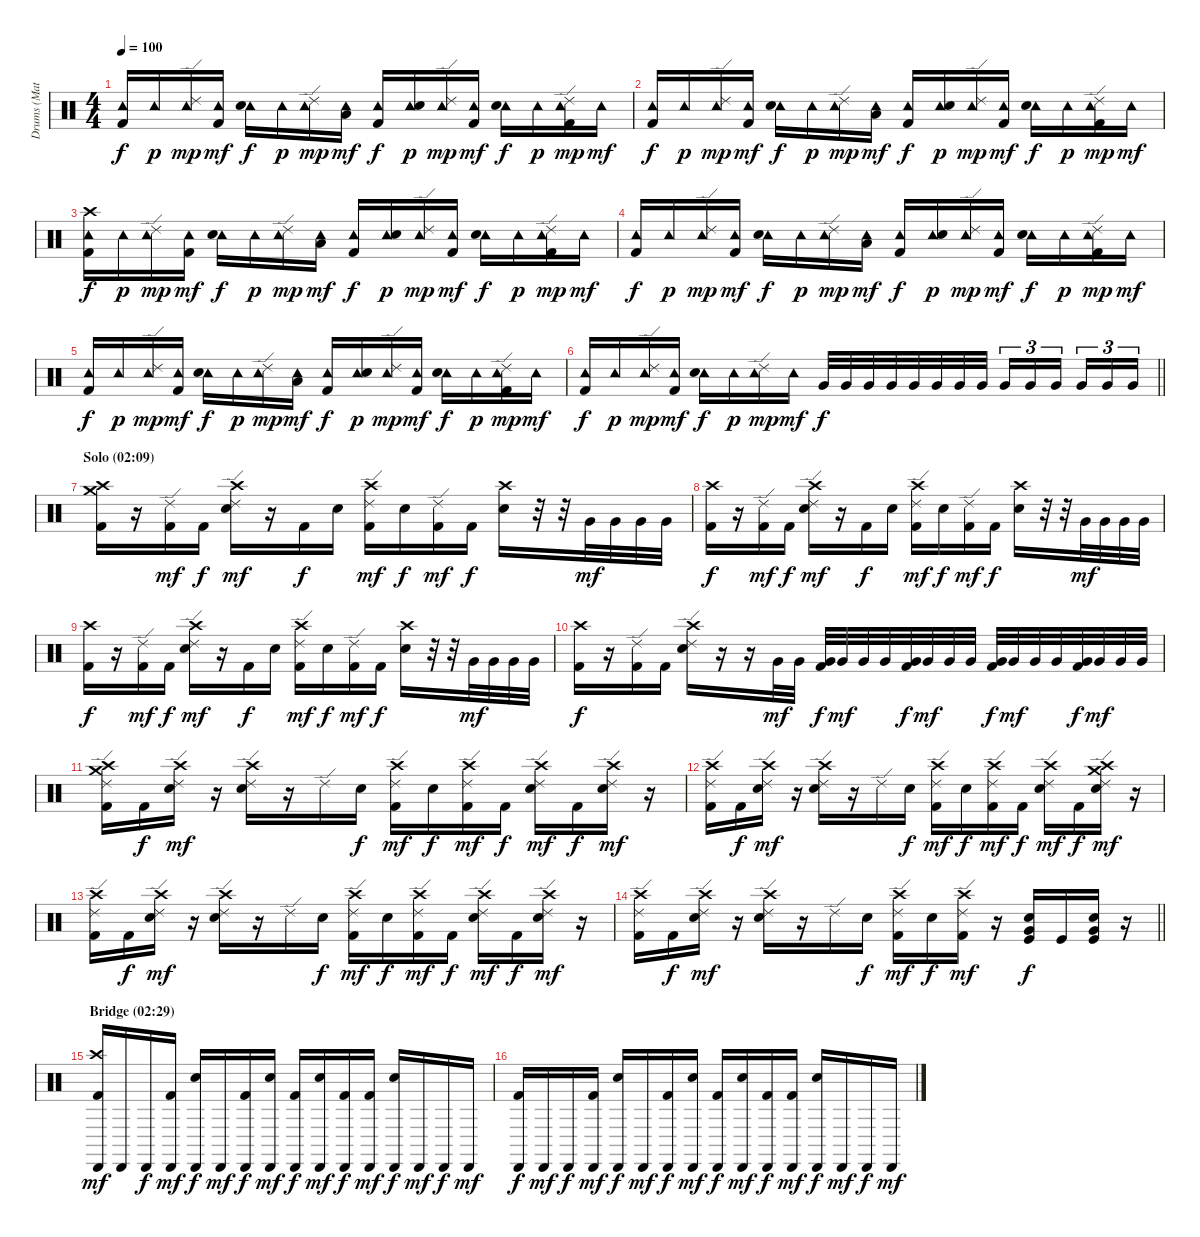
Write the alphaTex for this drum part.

\track ("Drums (Matt Sorum)" "Drums (Mat") {instrument percussion}
\staff {score}
\articulation defaults
\ts (4 4)
\tempo 100
\clef neutral
\ks c
("Tambourine (hit)" "Kick (hit) 2").16{dy f} "Tambourine (hit)".16{dy p} ("Tambourine (hit)" "Ride (edge) 2").16{dy mp} ("Tambourine (hit)" "Kick (hit) 2").16{dy mf} ("Tambourine (hit)" "Electric Snare (hit)").16{dy f} "Tambourine (hit)".16{dy p} ("Tambourine (hit)" "Ride (edge) 2").16{dy mp} ("Tambourine (hit)" "Low Tom (hit)").16{dy mf} ("Tambourine (hit)" "Kick (hit) 2").16{dy f} ("Tambourine (hit)" "Electric Snare (hit)").16{dy p} ("Tambourine (hit)" "Ride (edge) 2").16{dy mp} ("Tambourine (hit)" "Kick (hit) 2").16{dy mf} ("Tambourine (hit)" "Electric Snare (hit)").16{dy f} "Tambourine (hit)".16{dy p} ("Tambourine (hit)" "Ride (edge) 2" "Kick (hit) 2").16{dy mp} "Tambourine (hit)".16{dy mf} |
("Tambourine (hit)" "Kick (hit) 2").16{dy f} "Tambourine (hit)".16{dy p} ("Tambourine (hit)" "Ride (edge) 2").16{dy mp} ("Tambourine (hit)" "Kick (hit) 2").16{dy mf} ("Tambourine (hit)" "Electric Snare (hit)").16{dy f} "Tambourine (hit)".16{dy p} ("Tambourine (hit)" "Ride (edge) 2").16{dy mp} ("Tambourine (hit)" "Low Tom (hit)").16{dy mf} ("Tambourine (hit)" "Kick (hit) 2").16{dy f} ("Tambourine (hit)" "Electric Snare (hit)").16{dy p} ("Tambourine (hit)" "Ride (edge) 2").16{dy mp} ("Tambourine (hit)" "Kick (hit) 2").16{dy mf} ("Tambourine (hit)" "Electric Snare (hit)").16{dy f} "Tambourine (hit)".16{dy p} ("Tambourine (hit)" "Ride (edge) 2" "Kick (hit) 2").16{dy mp} "Tambourine (hit)".16{dy mf} |
("Tambourine (hit)" "Crash high (hit)" "Kick (hit) 2").16{dy f} "Tambourine (hit)".16{dy p} ("Tambourine (hit)" "Ride (edge) 2").16{dy mp} ("Tambourine (hit)" "Kick (hit) 2").16{dy mf} ("Tambourine (hit)" "Electric Snare (hit)").16{dy f} "Tambourine (hit)".16{dy p} ("Tambourine (hit)" "Ride (edge) 2").16{dy mp} ("Tambourine (hit)" "Low Tom (hit)").16{dy mf} ("Tambourine (hit)" "Kick (hit) 2").16{dy f} ("Tambourine (hit)" "Electric Snare (hit)").16{dy p} ("Tambourine (hit)" "Ride (edge) 2").16{dy mp} ("Tambourine (hit)" "Kick (hit) 2").16{dy mf} ("Tambourine (hit)" "Electric Snare (hit)").16{dy f} "Tambourine (hit)".16{dy p} ("Tambourine (hit)" "Ride (edge) 2" "Kick (hit) 2").16{dy mp} "Tambourine (hit)".16{dy mf} |
("Tambourine (hit)" "Kick (hit) 2").16{dy f} "Tambourine (hit)".16{dy p} ("Tambourine (hit)" "Ride (edge) 2").16{dy mp} ("Tambourine (hit)" "Kick (hit) 2").16{dy mf} ("Tambourine (hit)" "Electric Snare (hit)").16{dy f} "Tambourine (hit)".16{dy p} ("Tambourine (hit)" "Ride (edge) 2").16{dy mp} ("Tambourine (hit)" "Low Tom (hit)").16{dy mf} ("Tambourine (hit)" "Kick (hit) 2").16{dy f} ("Tambourine (hit)" "Electric Snare (hit)").16{dy p} ("Tambourine (hit)" "Ride (edge) 2").16{dy mp} ("Tambourine (hit)" "Kick (hit) 2").16{dy mf} ("Tambourine (hit)" "Electric Snare (hit)").16{dy f} "Tambourine (hit)".16{dy p} ("Tambourine (hit)" "Ride (edge) 2" "Kick (hit) 2").16{dy mp} "Tambourine (hit)".16{dy mf} |
("Tambourine (hit)" "Kick (hit) 2").16{dy f} "Tambourine (hit)".16{dy p} ("Tambourine (hit)" "Ride (edge) 2").16{dy mp} ("Tambourine (hit)" "Kick (hit) 2").16{dy mf} ("Tambourine (hit)" "Electric Snare (hit)").16{dy f} "Tambourine (hit)".16{dy p} ("Tambourine (hit)" "Ride (edge) 2").16{dy mp} ("Tambourine (hit)" "Low Tom (hit)").16{dy mf} ("Tambourine (hit)" "Kick (hit) 2").16{dy f} ("Tambourine (hit)" "Electric Snare (hit)").16{dy p} ("Tambourine (hit)" "Ride (edge) 2").16{dy mp} ("Tambourine (hit)" "Kick (hit) 2").16{dy mf} ("Tambourine (hit)" "Electric Snare (hit)").16{dy f} "Tambourine (hit)".16{dy p} ("Tambourine (hit)" "Ride (edge) 2" "Kick (hit) 2").16{dy mp} "Tambourine (hit)".16{dy mf} |
\barLineRight lightlight
("Tambourine (hit)" "Kick (hit) 2").16{dy f} "Tambourine (hit)".16{dy p} ("Tambourine (hit)" "Ride (edge) 2").16{dy mp} ("Tambourine (hit)" "Kick (hit) 2").16{dy mf} ("Tambourine (hit)" "Electric Snare (hit)").16{dy f} "Tambourine (hit)".16{dy p} ("Tambourine (hit)" "Ride (edge) 2").16{dy mp} "Tambourine (hit)".16{dy mf} "Very Low Tom (hit)".32{dy f} "Very Low Tom (hit)".32 "Very Low Tom (hit)".32 "Very Low Tom (hit)".32 "Very Low Tom (hit)".32 "Very Low Tom (hit)".32 "Very Low Tom (hit)".32 "Very Low Tom (hit)".32 "Very Low Tom (hit)".16{tu (3 2)} "Very Low Tom (hit)".16{tu (3 2)} "Very Low Tom (hit)".16{tu (3 2) beam splitsecondary} "Very Low Tom (hit)".16{tu (3 2)} "Very Low Tom (hit)".16{tu (3 2)} "Very Low Tom (hit)".16{tu (3 2)} |
\section ("" "Solo (02:09)")
("Crash medium (hit)" "Crash high (hit)" "Kick (hit) 2").16 r.16 ("Ride (edge) 2" "Kick (hit) 2").16{dy mf} "Kick (hit) 2".16{dy f} ("Crash high (hit)" "Ride (edge) 2" "Electric Snare (hit)").16{dy mf} r.16 "Kick (hit) 2".16{dy f} "Electric Snare (hit)".16 ("Crash high (hit)" "Ride (edge) 2" "Kick (hit) 2").16{dy mf} "Electric Snare (hit)".16{dy f} ("Ride (edge) 2" "Kick (hit) 2").16{dy mf} "Kick (hit) 2".16{dy f} ("Crash high (hit)" "Electric Snare (hit)").16 r.32 r.32 "Very Low Tom (hit)".32{dy mf} "Very Low Tom (hit)".32 "Very Low Tom (hit)".32 "Very Low Tom (hit)".32 |
("Crash high (hit)" "Kick (hit) 2").16{dy f} r.16 ("Ride (edge) 2" "Kick (hit) 2").16{dy mf} "Kick (hit) 2".16{dy f} ("Crash high (hit)" "Ride (edge) 2" "Electric Snare (hit)").16{dy mf} r.16 "Kick (hit) 2".16{dy f} "Electric Snare (hit)".16 ("Crash high (hit)" "Ride (edge) 2" "Kick (hit) 2").16{dy mf} "Electric Snare (hit)".16{dy f} ("Ride (edge) 2" "Kick (hit) 2").16{dy mf} "Kick (hit) 2".16{dy f} ("Crash high (hit)" "Electric Snare (hit)").16 r.32 r.32 "Very Low Tom (hit)".32{dy mf} "Very Low Tom (hit)".32 "Very Low Tom (hit)".32 "Very Low Tom (hit)".32 |
("Crash high (hit)" "Kick (hit) 2").16{dy f} r.16 ("Ride (edge) 2" "Kick (hit) 2").16{dy mf} "Kick (hit) 2".16{dy f} ("Crash high (hit)" "Ride (edge) 2" "Electric Snare (hit)").16{dy mf} r.16 "Kick (hit) 2".16{dy f} "Electric Snare (hit)".16 ("Crash high (hit)" "Ride (edge) 2" "Kick (hit) 2").16{dy mf} "Electric Snare (hit)".16{dy f} ("Ride (edge) 2" "Kick (hit) 2").16{dy mf} "Kick (hit) 2".16{dy f} ("Crash high (hit)" "Electric Snare (hit)").16 r.32 r.32 "Very Low Tom (hit)".32{dy mf} "Very Low Tom (hit)".32 "Very Low Tom (hit)".32 "Very Low Tom (hit)".32 |
("Crash high (hit)" "Kick (hit) 2").16{dy f} r.16 ("Ride (edge) 2" "Kick (hit) 2").16 "Kick (hit) 2".16 ("Crash high (hit)" "Ride (edge) 2" "Electric Snare (hit)").16 r.16 r.16 "Very Low Tom (hit)".32{dy mf} "Very Low Tom (hit)".32 ("Very Low Tom (hit)" "Kick (hit) 2").32{dy f} "Very Low Tom (hit)".32{dy mf} "Very Low Tom (hit)".32 "Very Low Tom (hit)".32 ("Very Low Tom (hit)" "Kick (hit) 2").32{dy f} "Very Low Tom (hit)".32{dy mf} "Very Low Tom (hit)".32 "Very Low Tom (hit)".32 ("Very Low Tom (hit)" "Kick (hit) 2").32{dy f} "Very Low Tom (hit)".32{dy mf} "Very Low Tom (hit)".32 "Very Low Tom (hit)".32 ("Very Low Tom (hit)" "Kick (hit) 2").32{dy f} "Very Low Tom (hit)".32{dy mf} "Very Low Tom (hit)".32 "Very Low Tom (hit)".32 |
("Crash medium (hit)" "Crash high (hit)" "Ride (edge) 2" "Kick (hit) 2").16 "Kick (hit) 2".16{dy f} ("Crash high (hit)" "Ride (edge) 2" "Electric Snare (hit)").16{dy mf} r.16 ("Crash high (hit)" "Ride (edge) 2" "Electric Snare (hit)").16 r.16 "Ride (edge) 2".16 "Electric Snare (hit)".16{dy f} ("Crash high (hit)" "Ride (edge) 2" "Kick (hit) 2").16{dy mf} "Electric Snare (hit)".16{dy f} ("Crash high (hit)" "Ride (edge) 2" "Kick (hit) 2").16{dy mf} "Kick (hit) 2".16{dy f} ("Crash high (hit)" "Ride (edge) 2" "Electric Snare (hit)").16{dy mf} "Kick (hit) 2".16{dy f} ("Crash high (hit)" "Ride (edge) 2" "Electric Snare (hit)").16{dy mf} r.16 |
("Crash high (hit)" "Ride (edge) 2" "Kick (hit) 2").16 "Kick (hit) 2".16{dy f} ("Crash high (hit)" "Ride (edge) 2" "Electric Snare (hit)").16{dy mf} r.16 ("Crash high (hit)" "Ride (edge) 2" "Electric Snare (hit)").16 r.16 "Ride (edge) 2".16 "Electric Snare (hit)".16{dy f} ("Crash high (hit)" "Ride (edge) 2" "Kick (hit) 2").16{dy mf} "Electric Snare (hit)".16{dy f} ("Crash high (hit)" "Ride (edge) 2" "Kick (hit) 2").16{dy mf} "Kick (hit) 2".16{dy f} ("Crash high (hit)" "Ride (edge) 2" "Electric Snare (hit)").16{dy mf} "Kick (hit) 2".16{dy f} ("Crash medium (hit)" "Crash high (hit)" "Ride (edge) 2" "Electric Snare (hit)").16{dy mf} r.16 |
("Crash high (hit)" "Ride (edge) 2" "Kick (hit) 2").16 "Kick (hit) 2".16{dy f} ("Crash high (hit)" "Ride (edge) 2" "Electric Snare (hit)").16{dy mf} r.16 ("Crash high (hit)" "Ride (edge) 2" "Electric Snare (hit)").16 r.16 "Ride (edge) 2".16 "Electric Snare (hit)".16{dy f} ("Crash high (hit)" "Ride (edge) 2" "Kick (hit) 2").16{dy mf} "Electric Snare (hit)".16{dy f} ("Crash high (hit)" "Ride (edge) 2" "Kick (hit) 2").16{dy mf} "Kick (hit) 2".16{dy f} ("Crash high (hit)" "Ride (edge) 2" "Electric Snare (hit)").16{dy mf} "Kick (hit) 2".16{dy f} ("Crash high (hit)" "Ride (edge) 2" "Electric Snare (hit)").16{dy mf} r.16 |
\barLineRight lightlight
("Crash high (hit)" "Ride (edge) 2" "Kick (hit) 2").16 "Kick (hit) 2".16{dy f} ("Crash high (hit)" "Ride (edge) 2" "Electric Snare (hit)").16{dy mf} r.16 ("Crash high (hit)" "Ride (edge) 2" "Electric Snare (hit)").16 r.16 "Ride (edge) 2".16 "Electric Snare (hit)".16{dy f} ("Crash high (hit)" "Ride (edge) 2" "Kick (hit) 2").16{dy mf} "Electric Snare (hit)".16{dy f} ("Crash high (hit)" "Ride (edge) 2" "Kick (hit) 2").16{dy mf} r.16 ("Electric Snare (hit)" "Very Low Tom (hit)" "Kick (hit)").16{dy f} "Kick (hit)".16 ("Electric Snare (hit)" "Very Low Tom (hit)" "Kick (hit)").16 r.16 |
\section ("" "Bridge (02:29)")
("Cabasa (hit)" "Crash high (hit)" "Kick (hit) 2").16{dy mf} "Cabasa (hit)".16 "Cabasa (hit)".16{dy f} ("Cabasa (hit)" "Kick (hit) 2").16{dy mf} ("Cabasa (hit)" "Electric Snare (hit)").16{dy f} "Cabasa (hit)".16{dy mf} ("Cabasa (hit)" "Kick (hit) 2").16{dy f} ("Cabasa (hit)" "Electric Snare (hit)").16{dy mf} ("Cabasa (hit)" "Kick (hit) 2").16{dy f} ("Cabasa (hit)" "Electric Snare (hit)").16{dy mf} ("Cabasa (hit)" "Kick (hit) 2").16{dy f} ("Cabasa (hit)" "Kick (hit) 2").16{dy mf} ("Cabasa (hit)" "Electric Snare (hit)").16{dy f} "Cabasa (hit)".16{dy mf} "Cabasa (hit)".16{dy f} "Cabasa (hit)".16{dy mf} |
("Cabasa (hit)" "Kick (hit) 2").16{dy f} "Cabasa (hit)".16{dy mf} "Cabasa (hit)".16{dy f} ("Cabasa (hit)" "Kick (hit) 2").16{dy mf} ("Cabasa (hit)" "Electric Snare (hit)").16{dy f} "Cabasa (hit)".16{dy mf} ("Cabasa (hit)" "Kick (hit) 2").16{dy f} ("Cabasa (hit)" "Electric Snare (hit)").16{dy mf} ("Cabasa (hit)" "Kick (hit) 2").16{dy f} ("Cabasa (hit)" "Electric Snare (hit)").16{dy mf} ("Cabasa (hit)" "Kick (hit) 2").16{dy f} ("Cabasa (hit)" "Kick (hit) 2").16{dy mf} ("Cabasa (hit)" "Electric Snare (hit)").16{dy f} "Cabasa (hit)".16{dy mf} "Cabasa (hit)".16{dy f} "Cabasa (hit)".16{dy mf}
